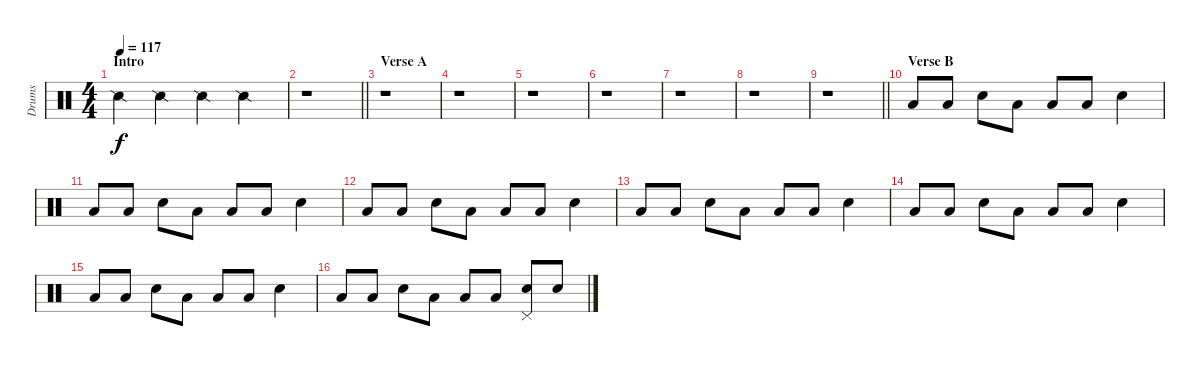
\track ("Drums" "Drums") {instrument percussion}
\staff {score}
\articulation defaults
\ts (4 4)
\section ("" "Intro")
\tempo 117
\clef neutral
\ks c "Snare (side stick) 2".4{dy f} "Snare (side stick) 2".4 "Snare (side stick) 2".4 "Snare (side stick) 2".4
|
\barLineRight lightlight
r.1 |
\section ("" "Verse A")
r.1 |
r.1 |
r.1 |
r.1 |
r.1 |
r.1 |
\barLineRight lightlight
r.1 |
\section ("" "Verse B")
"Low Tom (hit)".8 "Low Tom (hit)".8 "Snare (hit) 2".8 "Low Tom (hit)".8 "Low Tom (hit)".8 "Low Tom (hit)".8 "Snare (hit) 2".4 |
"Low Tom (hit)".8 "Low Tom (hit)".8 "Snare (hit) 2".8 "Low Tom (hit)".8 "Low Tom (hit)".8 "Low Tom (hit)".8 "Snare (hit) 2".4 |
"Low Tom (hit)".8 "Low Tom (hit)".8 "Snare (hit) 2".8 "Low Tom (hit)".8 "Low Tom (hit)".8 "Low Tom (hit)".8 "Snare (hit) 2".4 |
"Low Tom (hit)".8 "Low Tom (hit)".8 "Snare (hit) 2".8 "Low Tom (hit)".8 "Low Tom (hit)".8 "Low Tom (hit)".8 "Snare (hit) 2".4 |
"Low Tom (hit)".8 "Low Tom (hit)".8 "Snare (hit) 2".8 "Low Tom (hit)".8 "Low Tom (hit)".8 "Low Tom (hit)".8 "Snare (hit) 2".4 |
"Low Tom (hit)".8 "Low Tom (hit)".8 "Snare (hit) 2".8 "Low Tom (hit)".8 "Low Tom (hit)".8 "Low Tom (hit)".8 "Snare (hit) 2".4 |
"Low Tom (hit)".8 "Low Tom (hit)".8 "Snare (hit) 2".8 "Low Tom (hit)".8 "Low Tom (hit)".8 "Low Tom (hit)".8 ("Snare (hit) 2" "Pedal Hi-Hat (hit)").8 "Snare (hit) 2".8
